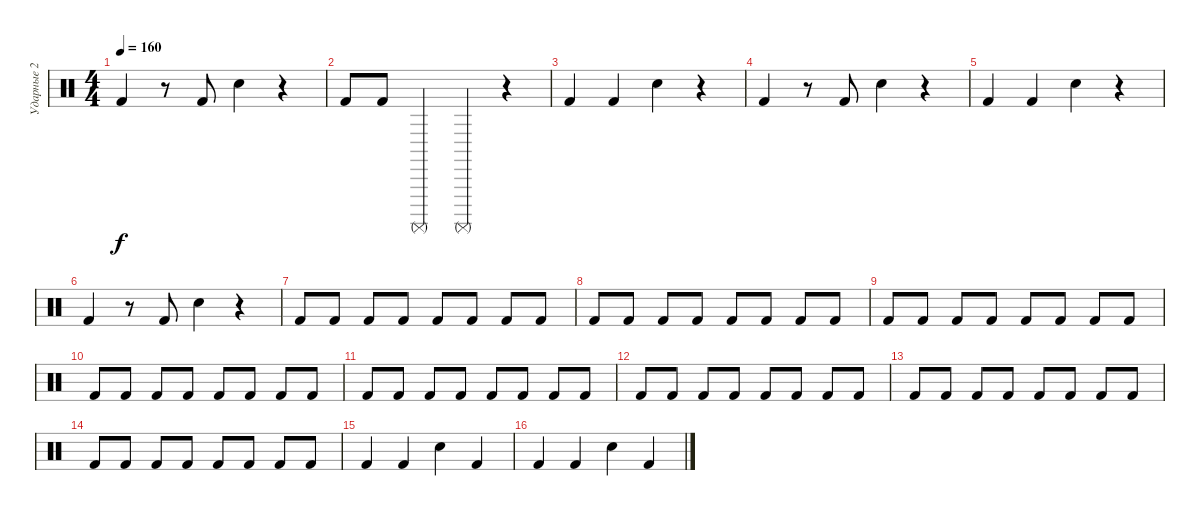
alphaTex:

\track ("Ударные 2" "Ударные 2") {instrument percussion}
\staff {score}
\articulation defaults
\ts (4 4)
\tempo 160
\clef neutral
\ks c "Kick (hit) 2".4{dy f}
r.8 "Kick (hit) 2".8 "Hand Clap (hit)".4 r.4 |
"Kick (hit) 2".8 "Kick (hit) 2".8 "Surdo (mute)".4 "Surdo (mute)".4 r.4 |
"Kick (hit) 2".4 "Kick (hit) 2".4 "Hand Clap (hit)".4 r.4 |
"Kick (hit) 2".4 r.8 "Kick (hit) 2".8 "Hand Clap (hit)".4 r.4 |
"Kick (hit) 2".4 "Kick (hit) 2".4 "Hand Clap (hit)".4 r.4 |
"Kick (hit) 2".4 r.8 "Kick (hit) 2".8 "Hand Clap (hit)".4 r.4 |
"Kick (hit) 2".8 "Kick (hit) 2".8 "Kick (hit) 2".8 "Kick (hit) 2".8 "Kick (hit) 2".8 "Kick (hit) 2".8 "Kick (hit) 2".8 "Kick (hit) 2".8 |
"Kick (hit) 2".8 "Kick (hit) 2".8 "Kick (hit) 2".8 "Kick (hit) 2".8 "Kick (hit) 2".8 "Kick (hit) 2".8 "Kick (hit) 2".8 "Kick (hit) 2".8 |
"Kick (hit) 2".8 "Kick (hit) 2".8 "Kick (hit) 2".8 "Kick (hit) 2".8 "Kick (hit) 2".8 "Kick (hit) 2".8 "Kick (hit) 2".8 "Kick (hit) 2".8 |
"Kick (hit) 2".8 "Kick (hit) 2".8 "Kick (hit) 2".8 "Kick (hit) 2".8 "Kick (hit) 2".8 "Kick (hit) 2".8 "Kick (hit) 2".8 "Kick (hit) 2".8 |
"Kick (hit) 2".8 "Kick (hit) 2".8 "Kick (hit) 2".8 "Kick (hit) 2".8 "Kick (hit) 2".8 "Kick (hit) 2".8 "Kick (hit) 2".8 "Kick (hit) 2".8 |
"Kick (hit) 2".8 "Kick (hit) 2".8 "Kick (hit) 2".8 "Kick (hit) 2".8 "Kick (hit) 2".8 "Kick (hit) 2".8 "Kick (hit) 2".8 "Kick (hit) 2".8 |
"Kick (hit) 2".8 "Kick (hit) 2".8 "Kick (hit) 2".8 "Kick (hit) 2".8 "Kick (hit) 2".8 "Kick (hit) 2".8 "Kick (hit) 2".8 "Kick (hit) 2".8 |
"Kick (hit) 2".8 "Kick (hit) 2".8 "Kick (hit) 2".8 "Kick (hit) 2".8 "Kick (hit) 2".8 "Kick (hit) 2".8 "Kick (hit) 2".8 "Kick (hit) 2".8 |
"Kick (hit) 2".4 "Kick (hit) 2".4 "Hand Clap (hit)".4 "Kick (hit) 2".4 |
"Kick (hit) 2".4 "Kick (hit) 2".4 "Hand Clap (hit)".4 "Kick (hit) 2".4
